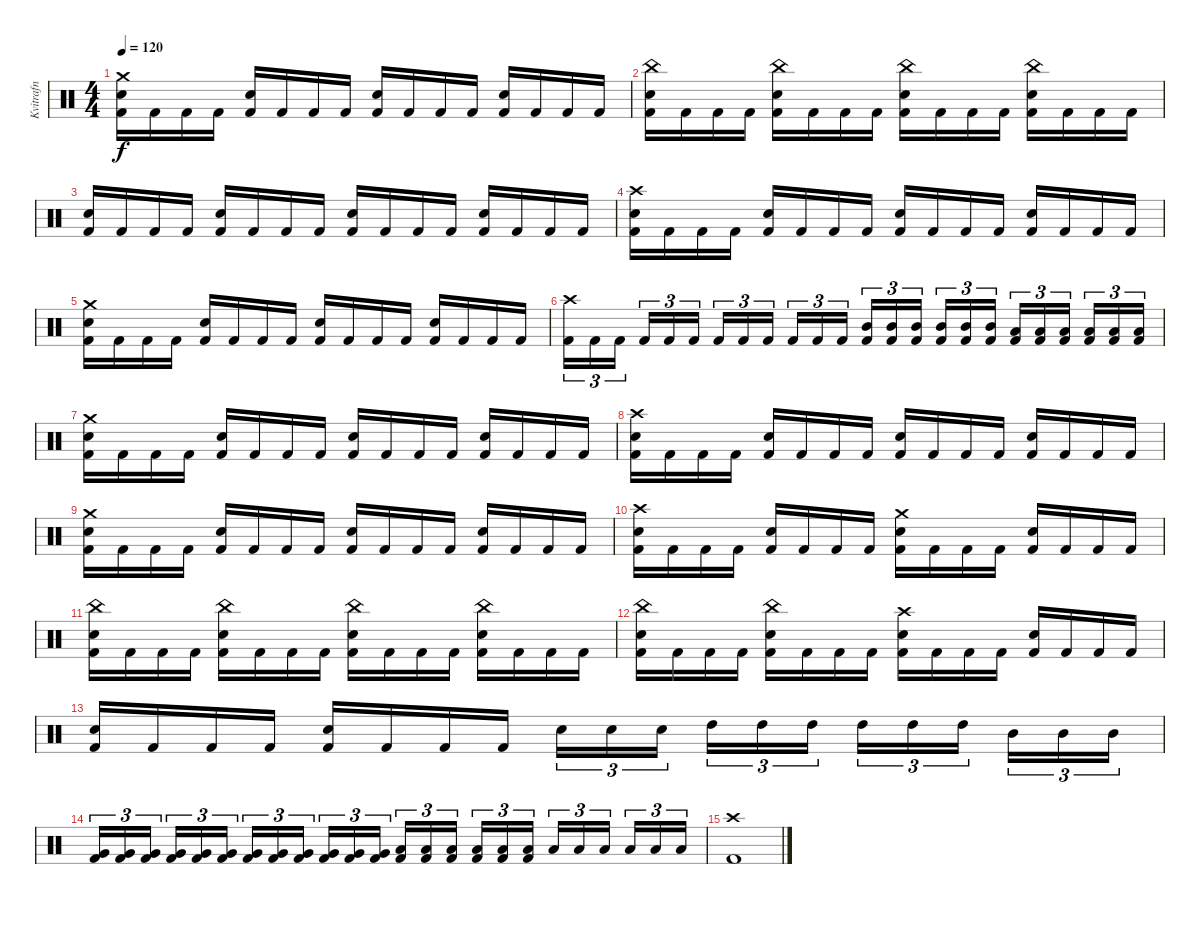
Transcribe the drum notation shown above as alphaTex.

\track ("Kvitrafn" "Kvitrafn") {instrument percussion}
\staff {score}
\articulation defaults
\ts (4 4)
\tempo 120
\clef neutral
\ks c
("Crash medium (hit)" "Electric Snare (hit)" "Kick (hit) 2").16{dy f} "Kick (hit) 2".16 "Kick (hit) 2".16 "Kick (hit) 2".16 ("Electric Snare (hit)" "Kick (hit) 2").16 "Kick (hit) 2".16 "Kick (hit) 2".16 "Kick (hit) 2".16 ("Electric Snare (hit)" "Kick (hit) 2").16 "Kick (hit) 2".16 "Kick (hit) 2".16 "Kick (hit) 2".16 ("Electric Snare (hit)" "Kick (hit) 2").16 "Kick (hit) 2".16 "Kick (hit) 2".16 "Kick (hit) 2".16 |
("China (hit)" "Electric Snare (hit)" "Kick (hit) 2").16 "Kick (hit) 2".16 "Kick (hit) 2".16 "Kick (hit) 2".16 ("China (hit)" "Electric Snare (hit)" "Kick (hit) 2").16 "Kick (hit) 2".16 "Kick (hit) 2".16 "Kick (hit) 2".16 ("China (hit)" "Electric Snare (hit)" "Kick (hit) 2").16 "Kick (hit) 2".16 "Kick (hit) 2".16 "Kick (hit) 2".16 ("China (hit)" "Electric Snare (hit)" "Kick (hit) 2").16 "Kick (hit) 2".16 "Kick (hit) 2".16 "Kick (hit) 2".16 |
("Electric Snare (hit)" "Kick (hit) 2").16 "Kick (hit) 2".16 "Kick (hit) 2".16 "Kick (hit) 2".16 ("Electric Snare (hit)" "Kick (hit) 2").16 "Kick (hit) 2".16 "Kick (hit) 2".16 "Kick (hit) 2".16 ("Electric Snare (hit)" "Kick (hit) 2").16 "Kick (hit) 2".16 "Kick (hit) 2".16 "Kick (hit) 2".16 ("Electric Snare (hit)" "Kick (hit) 2").16 "Kick (hit) 2".16 "Kick (hit) 2".16 "Kick (hit) 2".16 |
("Crash high (hit)" "Electric Snare (hit)" "Kick (hit) 2").16 "Kick (hit) 2".16 "Kick (hit) 2".16 "Kick (hit) 2".16 ("Electric Snare (hit)" "Kick (hit) 2").16 "Kick (hit) 2".16 "Kick (hit) 2".16 "Kick (hit) 2".16 ("Electric Snare (hit)" "Kick (hit) 2").16 "Kick (hit) 2".16 "Kick (hit) 2".16 "Kick (hit) 2".16 ("Electric Snare (hit)" "Kick (hit) 2").16 "Kick (hit) 2".16 "Kick (hit) 2".16 "Kick (hit) 2".16 |
("Crash medium (hit)" "Electric Snare (hit)" "Kick (hit) 2").16 "Kick (hit) 2".16 "Kick (hit) 2".16 "Kick (hit) 2".16 ("Electric Snare (hit)" "Kick (hit) 2").16 "Kick (hit) 2".16 "Kick (hit) 2".16 "Kick (hit) 2".16 ("Electric Snare (hit)" "Kick (hit) 2").16 "Kick (hit) 2".16 "Kick (hit) 2".16 "Kick (hit) 2".16 ("Electric Snare (hit)" "Kick (hit) 2").16 "Kick (hit) 2".16 "Kick (hit) 2".16 "Kick (hit) 2".16 |
("Crash high (hit)" "Kick (hit) 2").16{tu (3 2)} "Kick (hit) 2".16{tu (3 2)} "Kick (hit) 2".16{tu (3 2) beam splitsecondary} "Kick (hit) 2".16{tu (3 2)} "Kick (hit) 2".16{tu (3 2)} "Kick (hit) 2".16{tu (3 2)} "Kick (hit) 2".16{tu (3 2)} "Kick (hit) 2".16{tu (3 2)} "Kick (hit) 2".16{tu (3 2) beam splitsecondary} "Kick (hit) 2".16{tu (3 2)} "Kick (hit) 2".16{tu (3 2)} "Kick (hit) 2".16{tu (3 2)} ("Mid Tom (hit)" "Kick (hit) 2").16{tu (3 2)} ("Mid Tom (hit)" "Kick (hit) 2").16{tu (3 2)} ("Mid Tom (hit)" "Kick (hit) 2").16{tu (3 2) beam splitsecondary} ("Mid Tom (hit)" "Kick (hit) 2").16{tu (3 2)} ("Mid Tom (hit)" "Kick (hit) 2").16{tu (3 2)} ("Mid Tom (hit)" "Kick (hit) 2").16{tu (3 2)} ("Low Tom (hit)" "Kick (hit) 2").16{tu (3 2)} ("Low Tom (hit)" "Kick (hit) 2").16{tu (3 2)} ("Low Tom (hit)" "Kick (hit) 2").16{tu (3 2) beam splitsecondary} ("Low Tom (hit)" "Kick (hit) 2").16{tu (3 2)} ("Low Tom (hit)" "Kick (hit) 2").16{tu (3 2)} ("Low Tom (hit)" "Kick (hit) 2").16{tu (3 2)} |
("Crash medium (hit)" "Electric Snare (hit)" "Kick (hit) 2").16 "Kick (hit) 2".16 "Kick (hit) 2".16 "Kick (hit) 2".16 ("Electric Snare (hit)" "Kick (hit) 2").16 "Kick (hit) 2".16 "Kick (hit) 2".16 "Kick (hit) 2".16 ("Electric Snare (hit)" "Kick (hit) 2").16 "Kick (hit) 2".16 "Kick (hit) 2".16 "Kick (hit) 2".16 ("Electric Snare (hit)" "Kick (hit) 2").16 "Kick (hit) 2".16 "Kick (hit) 2".16 "Kick (hit) 2".16 |
("Crash high (hit)" "Electric Snare (hit)" "Kick (hit) 2").16 "Kick (hit) 2".16 "Kick (hit) 2".16 "Kick (hit) 2".16 ("Electric Snare (hit)" "Kick (hit) 2").16 "Kick (hit) 2".16 "Kick (hit) 2".16 "Kick (hit) 2".16 ("Electric Snare (hit)" "Kick (hit) 2").16 "Kick (hit) 2".16 "Kick (hit) 2".16 "Kick (hit) 2".16 ("Electric Snare (hit)" "Kick (hit) 2").16 "Kick (hit) 2".16 "Kick (hit) 2".16 "Kick (hit) 2".16 |
("Crash medium (hit)" "Electric Snare (hit)" "Kick (hit) 2").16 "Kick (hit) 2".16 "Kick (hit) 2".16 "Kick (hit) 2".16 ("Electric Snare (hit)" "Kick (hit) 2").16 "Kick (hit) 2".16 "Kick (hit) 2".16 "Kick (hit) 2".16 ("Electric Snare (hit)" "Kick (hit) 2").16 "Kick (hit) 2".16 "Kick (hit) 2".16 "Kick (hit) 2".16 ("Electric Snare (hit)" "Kick (hit) 2").16 "Kick (hit) 2".16 "Kick (hit) 2".16 "Kick (hit) 2".16 |
("Crash high (hit)" "Electric Snare (hit)" "Kick (hit) 2").16 "Kick (hit) 2".16 "Kick (hit) 2".16 "Kick (hit) 2".16 ("Electric Snare (hit)" "Kick (hit) 2").16 "Kick (hit) 2".16 "Kick (hit) 2".16 "Kick (hit) 2".16 ("Crash medium (hit)" "Electric Snare (hit)" "Kick (hit) 2").16 "Kick (hit) 2".16 "Kick (hit) 2".16 "Kick (hit) 2".16 ("Electric Snare (hit)" "Kick (hit) 2").16 "Kick (hit) 2".16 "Kick (hit) 2".16 "Kick (hit) 2".16 |
("China (hit)" "Electric Snare (hit)" "Kick (hit) 2").16 "Kick (hit) 2".16 "Kick (hit) 2".16 "Kick (hit) 2".16 ("China (hit)" "Electric Snare (hit)" "Kick (hit) 2").16 "Kick (hit) 2".16 "Kick (hit) 2".16 "Kick (hit) 2".16 ("China (hit)" "Electric Snare (hit)" "Kick (hit) 2").16 "Kick (hit) 2".16 "Kick (hit) 2".16 "Kick (hit) 2".16 ("China (hit)" "Electric Snare (hit)" "Kick (hit) 2").16 "Kick (hit) 2".16 "Kick (hit) 2".16 "Kick (hit) 2".16 |
("China (hit)" "Electric Snare (hit)" "Kick (hit) 2").16 "Kick (hit) 2".16 "Kick (hit) 2".16 "Kick (hit) 2".16 ("China (hit)" "Electric Snare (hit)" "Kick (hit) 2").16 "Kick (hit) 2".16 "Kick (hit) 2".16 "Kick (hit) 2".16 ("Crash high (hit)" "Electric Snare (hit)" "Kick (hit) 2").16 "Kick (hit) 2".16 "Kick (hit) 2".16 "Kick (hit) 2".16 ("Electric Snare (hit)" "Kick (hit) 2").16 "Kick (hit) 2".16 "Kick (hit) 2".16 "Kick (hit) 2".16 |
("Electric Snare (hit)" "Kick (hit) 2").16 "Kick (hit) 2".16 "Kick (hit) 2".16 "Kick (hit) 2".16 ("Electric Snare (hit)" "Kick (hit) 2").16 "Kick (hit) 2".16 "Kick (hit) 2".16 "Kick (hit) 2".16 "Electric Snare (hit)".16{tu (3 2)} "Electric Snare (hit)".16{tu (3 2)} "Electric Snare (hit)".16{tu (3 2) beam splitsecondary} "High Tom (hit)".16{tu (3 2)} "High Tom (hit)".16{tu (3 2)} "High Tom (hit)".16{tu (3 2)} "High Tom (hit)".16{tu (3 2)} "High Tom (hit)".16{tu (3 2)} "High Tom (hit)".16{tu (3 2) beam splitsecondary} "Mid Tom (hit)".16{tu (3 2)} "Mid Tom (hit)".16{tu (3 2)} "Mid Tom (hit)".16{tu (3 2)} |
("Very Low Tom (hit)" "Kick (hit) 2").16{tu (3 2)} ("Very Low Tom (hit)" "Kick (hit) 2").16{tu (3 2)} ("Very Low Tom (hit)" "Kick (hit) 2").16{tu (3 2) beam splitsecondary} ("Very Low Tom (hit)" "Kick (hit) 2").16{tu (3 2)} ("Very Low Tom (hit)" "Kick (hit) 2").16{tu (3 2)} ("Very Low Tom (hit)" "Kick (hit) 2").16{tu (3 2)} ("Very Low Tom (hit)" "Kick (hit) 2").16{tu (3 2)} ("Very Low Tom (hit)" "Kick (hit) 2").16{tu (3 2)} ("Very Low Tom (hit)" "Kick (hit) 2").16{tu (3 2) beam splitsecondary} ("Very Low Tom (hit)" "Kick (hit) 2").16{tu (3 2)} ("Very Low Tom (hit)" "Kick (hit) 2").16{tu (3 2)} ("Very Low Tom (hit)" "Kick (hit) 2").16{tu (3 2)} ("Low Floor Tom (hit)" "Kick (hit) 2").16{tu (3 2)} ("Low Floor Tom (hit)" "Kick (hit) 2").16{tu (3 2)} ("Low Floor Tom (hit)" "Kick (hit) 2").16{tu (3 2) beam splitsecondary} ("Low Floor Tom (hit)" "Kick (hit) 2").16{tu (3 2)} ("Low Floor Tom (hit)" "Kick (hit) 2").16{tu (3 2)} ("Low Floor Tom (hit)" "Kick (hit) 2").16{tu (3 2)} "Low Tom (hit)".16{tu (3 2)} "Low Tom (hit)".16{tu (3 2)} "Low Tom (hit)".16{tu (3 2) beam splitsecondary} "Low Tom (hit)".16{tu (3 2)} "Low Tom (hit)".16{tu (3 2)} "Low Tom (hit)".16{tu (3 2)} |
("Crash high (hit)" "Kick (hit) 2").1
